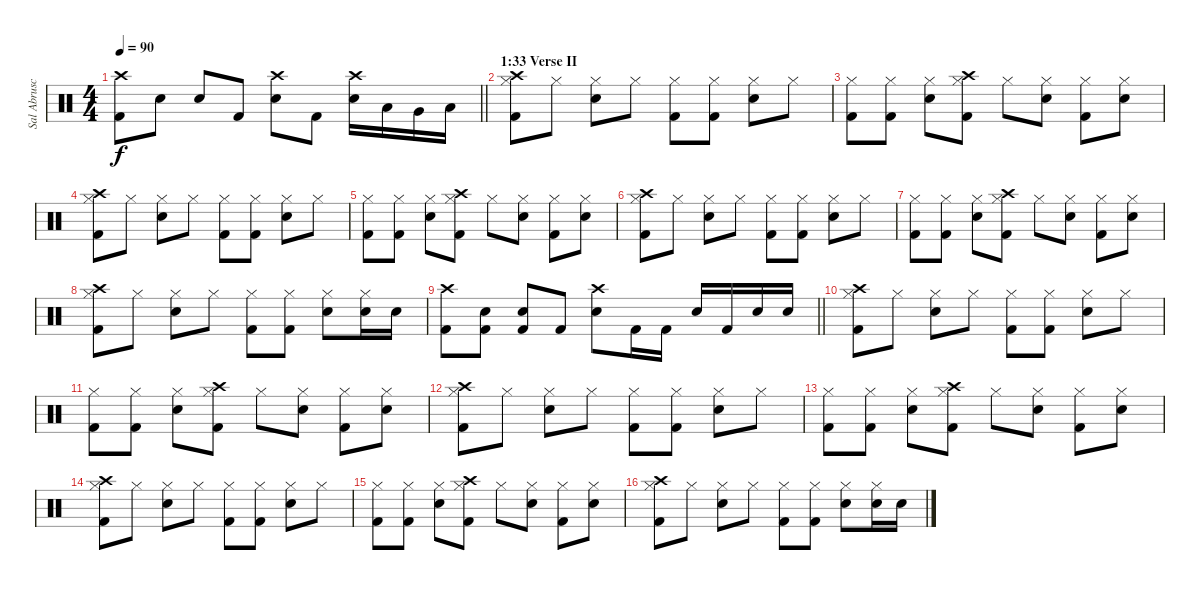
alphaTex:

\track ("Sal Abruscato (Drums)" "Sal Abrusc") {instrument percussion}
\staff {score}
\articulation defaults
\ts (4 4)
\tempo 90
\clef neutral
\barLineRight lightlight
\ks c
("Crash high (hit)" "Kick (hit) 2").8{dy f} "Electric Snare (hit)".8 "Electric Snare (hit)".8 "Kick (hit) 2".8 ("Crash high (hit)" "Electric Snare (hit)").8 "Kick (hit) 2".8 ("Crash high (hit)" "Electric Snare (hit)").16 "Low Tom (hit)".16 "Very Low Tom (hit)".16 "Low Floor Tom (hit)".16 |
\section ("" "1:33 Verse II")
("Crash high (hit)" "Hi-Hat (closed)" "Kick (hit) 2").8 "Hi-Hat (closed)".8 ("Hi-Hat (closed)" "Electric Snare (hit)").8 "Hi-Hat (closed)".8 ("Hi-Hat (closed)" "Kick (hit) 2").8 ("Hi-Hat (closed)" "Kick (hit) 2").8 ("Hi-Hat (closed)" "Electric Snare (hit)").8 "Hi-Hat (closed)".8 |
("Hi-Hat (closed)" "Kick (hit) 2").8 ("Hi-Hat (closed)" "Kick (hit) 2").8 ("Hi-Hat (closed)" "Electric Snare (hit)").8 ("Crash high (hit)" "Hi-Hat (closed)" "Kick (hit) 2").8 "Hi-Hat (closed)".8 ("Hi-Hat (closed)" "Electric Snare (hit)").8 ("Hi-Hat (closed)" "Kick (hit) 2").8 ("Hi-Hat (closed)" "Electric Snare (hit)").8 |
("Crash high (hit)" "Hi-Hat (closed)" "Kick (hit) 2").8 "Hi-Hat (closed)".8 ("Hi-Hat (closed)" "Electric Snare (hit)").8 "Hi-Hat (closed)".8 ("Hi-Hat (closed)" "Kick (hit) 2").8 ("Hi-Hat (closed)" "Kick (hit) 2").8 ("Hi-Hat (closed)" "Electric Snare (hit)").8 "Hi-Hat (closed)".8 |
("Hi-Hat (closed)" "Kick (hit) 2").8 ("Hi-Hat (closed)" "Kick (hit) 2").8 ("Hi-Hat (closed)" "Electric Snare (hit)").8 ("Crash high (hit)" "Hi-Hat (closed)" "Kick (hit) 2").8 "Hi-Hat (closed)".8 ("Hi-Hat (closed)" "Electric Snare (hit)").8 ("Hi-Hat (closed)" "Kick (hit) 2").8 ("Hi-Hat (closed)" "Electric Snare (hit)").8 |
("Crash high (hit)" "Hi-Hat (closed)" "Kick (hit) 2").8 "Hi-Hat (closed)".8 ("Hi-Hat (closed)" "Electric Snare (hit)").8 "Hi-Hat (closed)".8 ("Hi-Hat (closed)" "Kick (hit) 2").8 ("Hi-Hat (closed)" "Kick (hit) 2").8 ("Hi-Hat (closed)" "Electric Snare (hit)").8 "Hi-Hat (closed)".8 |
("Hi-Hat (closed)" "Kick (hit) 2").8 ("Hi-Hat (closed)" "Kick (hit) 2").8 ("Hi-Hat (closed)" "Electric Snare (hit)").8 ("Crash high (hit)" "Hi-Hat (closed)" "Kick (hit) 2").8 "Hi-Hat (closed)".8 ("Hi-Hat (closed)" "Electric Snare (hit)").8 ("Hi-Hat (closed)" "Kick (hit) 2").8 ("Hi-Hat (closed)" "Electric Snare (hit)").8 |
("Crash high (hit)" "Hi-Hat (closed)" "Kick (hit) 2").8 "Hi-Hat (closed)".8 ("Hi-Hat (closed)" "Electric Snare (hit)").8 "Hi-Hat (closed)".8 ("Hi-Hat (closed)" "Kick (hit) 2").8 ("Hi-Hat (closed)" "Kick (hit) 2").8 ("Hi-Hat (closed)" "Electric Snare (hit)").8 ("Electric Snare (hit)" "Hi-Hat (closed)").16 "Electric Snare (hit)".16 |
\barLineRight lightlight
("Crash high (hit)" "Kick (hit) 2").8 ("Electric Snare (hit)" "Kick (hit) 2").8 ("Electric Snare (hit)" "Kick (hit) 2").8 "Kick (hit) 2".8 ("Crash high (hit)" "Electric Snare (hit)").8 "Kick (hit) 2".16 "Kick (hit) 2".16 "Electric Snare (hit)".16 "Kick (hit) 2".16 "Electric Snare (hit)".16 "Electric Snare (hit)".16 |
("Crash high (hit)" "Hi-Hat (closed)" "Kick (hit) 2").8 "Hi-Hat (closed)".8 ("Hi-Hat (closed)" "Electric Snare (hit)").8 "Hi-Hat (closed)".8 ("Hi-Hat (closed)" "Kick (hit) 2").8 ("Hi-Hat (closed)" "Kick (hit) 2").8 ("Hi-Hat (closed)" "Electric Snare (hit)").8 "Hi-Hat (closed)".8 |
("Hi-Hat (closed)" "Kick (hit) 2").8 ("Hi-Hat (closed)" "Kick (hit) 2").8 ("Hi-Hat (closed)" "Electric Snare (hit)").8 ("Crash high (hit)" "Hi-Hat (closed)" "Kick (hit) 2").8 "Hi-Hat (closed)".8 ("Hi-Hat (closed)" "Electric Snare (hit)").8 ("Hi-Hat (closed)" "Kick (hit) 2").8 ("Hi-Hat (closed)" "Electric Snare (hit)").8 |
("Crash high (hit)" "Hi-Hat (closed)" "Kick (hit) 2").8 "Hi-Hat (closed)".8 ("Hi-Hat (closed)" "Electric Snare (hit)").8 "Hi-Hat (closed)".8 ("Hi-Hat (closed)" "Kick (hit) 2").8 ("Hi-Hat (closed)" "Kick (hit) 2").8 ("Hi-Hat (closed)" "Electric Snare (hit)").8 "Hi-Hat (closed)".8 |
("Hi-Hat (closed)" "Kick (hit) 2").8 ("Hi-Hat (closed)" "Kick (hit) 2").8 ("Hi-Hat (closed)" "Electric Snare (hit)").8 ("Crash high (hit)" "Hi-Hat (closed)" "Kick (hit) 2").8 "Hi-Hat (closed)".8 ("Hi-Hat (closed)" "Electric Snare (hit)").8 ("Hi-Hat (closed)" "Kick (hit) 2").8 ("Hi-Hat (closed)" "Electric Snare (hit)").8 |
("Crash high (hit)" "Hi-Hat (closed)" "Kick (hit) 2").8 "Hi-Hat (closed)".8 ("Hi-Hat (closed)" "Electric Snare (hit)").8 "Hi-Hat (closed)".8 ("Hi-Hat (closed)" "Kick (hit) 2").8 ("Hi-Hat (closed)" "Kick (hit) 2").8 ("Hi-Hat (closed)" "Electric Snare (hit)").8 "Hi-Hat (closed)".8 |
("Hi-Hat (closed)" "Kick (hit) 2").8 ("Hi-Hat (closed)" "Kick (hit) 2").8 ("Hi-Hat (closed)" "Electric Snare (hit)").8 ("Crash high (hit)" "Hi-Hat (closed)" "Kick (hit) 2").8 "Hi-Hat (closed)".8 ("Hi-Hat (closed)" "Electric Snare (hit)").8 ("Hi-Hat (closed)" "Kick (hit) 2").8 ("Hi-Hat (closed)" "Electric Snare (hit)").8 |
("Crash high (hit)" "Hi-Hat (closed)" "Kick (hit) 2").8 "Hi-Hat (closed)".8 ("Hi-Hat (closed)" "Electric Snare (hit)").8 "Hi-Hat (closed)".8 ("Hi-Hat (closed)" "Kick (hit) 2").8 ("Hi-Hat (closed)" "Kick (hit) 2").8 ("Hi-Hat (closed)" "Electric Snare (hit)").8 ("Electric Snare (hit)" "Hi-Hat (closed)").16 "Electric Snare (hit)".16
